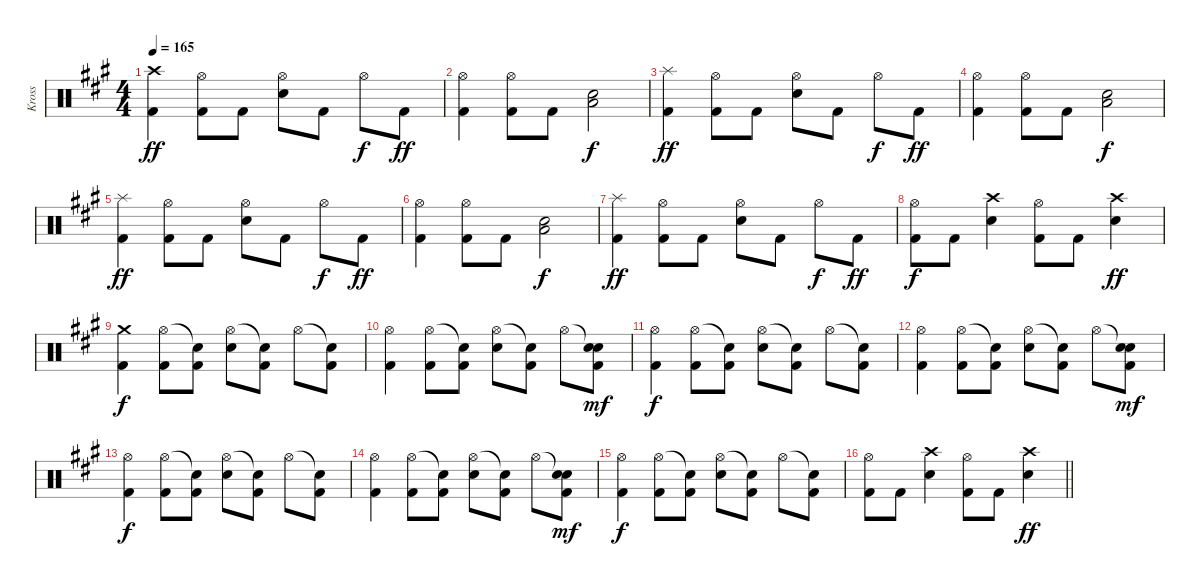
\track ("Kross" "Kross") {instrument percussion}
\staff {score}
\articulation defaults
\ts (4 4)
\tempo 165
\clef neutral
\ks a
("Crash high (hit)" "Kick (hit) 2").4{dy ff} ("Hi-Hat (open)" "Kick (hit) 2").8 "Kick (hit) 2".8 ("Hi-Hat (open)" "Snare (hit) 2").8 "Kick (hit) 2".8 "Hi-Hat (open)".8{dy f} "Kick (hit) 2".8{dy ff} |
("Hi-Hat (open)" "Kick (hit) 2").4 ("Hi-Hat (open)" "Kick (hit) 2").8 "Kick (hit) 2".8 ("Snare (hit) 2" "Low Floor Tom (hit)").2{dy f} |
("Splash (hit)" "Kick (hit) 2").4{dy ff} ("Hi-Hat (open)" "Kick (hit) 2").8 "Kick (hit) 2".8 ("Hi-Hat (open)" "Snare (hit) 2").8 "Kick (hit) 2".8 "Hi-Hat (open)".8{dy f} "Kick (hit) 2".8{dy ff} |
("Hi-Hat (open)" "Kick (hit) 2").4 ("Hi-Hat (open)" "Kick (hit) 2").8 "Kick (hit) 2".8 ("Snare (hit) 2" "Low Floor Tom (hit)").2{dy f} |
("Splash (hit)" "Kick (hit) 2").4{dy ff} ("Hi-Hat (open)" "Kick (hit) 2").8 "Kick (hit) 2".8 ("Hi-Hat (open)" "Snare (hit) 2").8 "Kick (hit) 2".8 "Hi-Hat (open)".8{dy f} "Kick (hit) 2".8{dy ff} |
("Hi-Hat (open)" "Kick (hit) 2").4 ("Hi-Hat (open)" "Kick (hit) 2").8 "Kick (hit) 2".8 ("Snare (hit) 2" "Low Floor Tom (hit)").2{dy f} |
("Splash (hit)" "Kick (hit) 2").4{dy ff} ("Hi-Hat (open)" "Kick (hit) 2").8 "Kick (hit) 2".8 ("Hi-Hat (open)" "Snare (hit) 2").8 "Kick (hit) 2".8 "Hi-Hat (open)".8{dy f} "Kick (hit) 2".8{dy ff} |
("Hi-Hat (open)" "Kick (hit) 2").8{dy f} "Kick (hit) 2".8 ("Crash high (hit)" "Snare (hit) 2").4 ("Hi-Hat (open)" "Kick (hit) 2").8 "Kick (hit) 2".8 ("Crash high (hit)" "Snare (hit) 2").4{dy ff} |
("Crash medium (hit)" "Kick (hit) 2").4{dy f} ("Hi-Hat (open)" "Kick (hit) 2").8 ("Snare (hit)"{t} "Kick (hit) 2").8 ("Hi-Hat (open)" "Snare (hit) 2").8 ("Snare (hit)"{t} "Kick (hit) 2").8 "Hi-Hat (open)".8 ("Snare (hit)"{t} "Kick (hit) 2").8 |
("Hi-Hat (open)" "Kick (hit) 2").4 ("Hi-Hat (open)" "Kick (hit) 2").8 ("Snare (hit)"{t} "Kick (hit) 2").8 ("Hi-Hat (open)" "Snare (hit) 2").8 ("Snare (hit)"{t} "Kick (hit) 2").8 "Hi-Hat (open)".8 ("Snare (hit)"{t} "Electric Snare (hit)" "Kick (hit) 2").8{dy mf} |
("Hi-Hat (open)" "Kick (hit) 2").4{dy f} ("Hi-Hat (open)" "Kick (hit) 2").8 ("Snare (hit)"{t} "Kick (hit) 2").8 ("Hi-Hat (open)" "Snare (hit) 2").8 ("Snare (hit)"{t} "Kick (hit) 2").8 "Hi-Hat (open)".8 ("Snare (hit)"{t} "Kick (hit) 2").8 |
("Hi-Hat (open)" "Kick (hit) 2").4 ("Hi-Hat (open)" "Kick (hit) 2").8 ("Snare (hit)"{t} "Kick (hit) 2").8 ("Hi-Hat (open)" "Snare (hit) 2").8 ("Snare (hit)"{t} "Kick (hit) 2").8 "Hi-Hat (open)".8 ("Snare (hit)"{t} "Electric Snare (hit)" "Kick (hit) 2").8{dy mf} |
("Hi-Hat (open)" "Kick (hit) 2").4{dy f} ("Hi-Hat (open)" "Kick (hit) 2").8 ("Snare (hit)"{t} "Kick (hit) 2").8 ("Hi-Hat (open)" "Snare (hit) 2").8 ("Snare (hit)"{t} "Kick (hit) 2").8 "Hi-Hat (open)".8 ("Snare (hit)"{t} "Kick (hit) 2").8 |
("Hi-Hat (open)" "Kick (hit) 2").4 ("Hi-Hat (open)" "Kick (hit) 2").8 ("Snare (hit)"{t} "Kick (hit) 2").8 ("Hi-Hat (open)" "Snare (hit) 2").8 ("Snare (hit)"{t} "Kick (hit) 2").8 "Hi-Hat (open)".8 ("Snare (hit)"{t} "Electric Snare (hit)" "Kick (hit) 2").8{dy mf} |
("Hi-Hat (open)" "Kick (hit) 2").4{dy f} ("Hi-Hat (open)" "Kick (hit) 2").8 ("Snare (hit)"{t} "Kick (hit) 2").8 ("Hi-Hat (open)" "Snare (hit) 2").8 ("Snare (hit)"{t} "Kick (hit) 2").8 "Hi-Hat (open)".8 ("Snare (hit)"{t} "Kick (hit) 2").8 |
\barLineRight lightlight
("Hi-Hat (open)" "Kick (hit) 2").8 "Kick (hit) 2".8 ("Crash high (hit)" "Snare (hit) 2").4 ("Hi-Hat (open)" "Kick (hit) 2").8 "Kick (hit) 2".8 ("Crash high (hit)" "Snare (hit) 2").4{dy ff}
